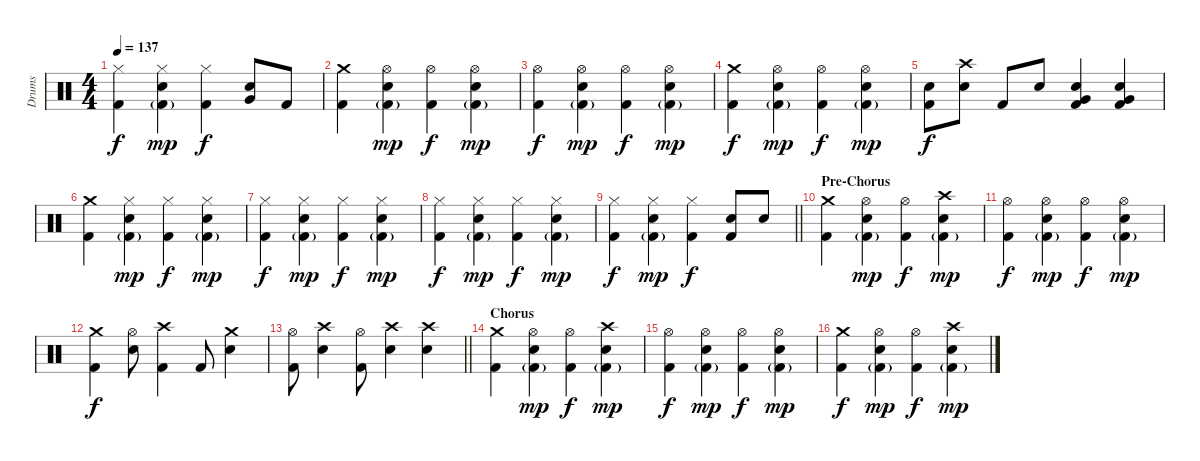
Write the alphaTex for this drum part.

\track ("Drums" "Drums") {instrument percussion}
\staff {score}
\articulation defaults
\ts (4 4)
\tempo 137
\clef neutral
\ks c
("Hi-Hat (closed)" "Kick (hit) 2").4{dy f} ("Hi-Hat (closed)" "Electric Snare (hit)" "Kick (hit) 2"{g}).4{dy mp} ("Hi-Hat (closed)" "Kick (hit) 2").4{dy f} ("Electric Snare (hit)" "Very Low Tom (hit)").8 "Kick (hit) 2".8 |
("Crash medium (hit)" "Kick (hit) 2").4 ("Hi-Hat (open)" "Electric Snare (hit)" "Kick (hit) 2"{g}).4{dy mp} ("Hi-Hat (open)" "Kick (hit) 2").4{dy f} ("Hi-Hat (open)" "Electric Snare (hit)" "Kick (hit) 2"{g}).4{dy mp} |
("Hi-Hat (open)" "Kick (hit) 2").4{dy f} ("Hi-Hat (open)" "Electric Snare (hit)" "Kick (hit) 2"{g}).4{dy mp} ("Hi-Hat (open)" "Kick (hit) 2").4{dy f} ("Hi-Hat (open)" "Electric Snare (hit)" "Kick (hit) 2"{g}).4{dy mp} |
("Crash medium (hit)" "Kick (hit) 2").4{dy f} ("Hi-Hat (open)" "Electric Snare (hit)" "Kick (hit) 2"{g}).4{dy mp} ("Hi-Hat (open)" "Kick (hit) 2").4{dy f} ("Hi-Hat (open)" "Electric Snare (hit)" "Kick (hit) 2"{g}).4{dy mp} |
("Electric Snare (hit)" "Kick (hit) 2").8{dy f} ("Crash high (hit)" "Electric Snare (hit)").8 "Kick (hit) 2".8 "Electric Snare (hit)".8 ("Electric Snare (hit)" "Very Low Tom (hit)" "Kick (hit) 2").4 ("Electric Snare (hit)" "Very Low Tom (hit)" "Kick (hit) 2").4 |
("Crash medium (hit)" "Kick (hit) 2").4 ("Hi-Hat (closed)" "Electric Snare (hit)" "Kick (hit) 2"{g}).4{dy mp} ("Hi-Hat (closed)" "Kick (hit) 2").4{dy f} ("Hi-Hat (closed)" "Electric Snare (hit)" "Kick (hit) 2"{g}).4{dy mp} |
("Hi-Hat (closed)" "Kick (hit) 2").4{dy f} ("Hi-Hat (closed)" "Electric Snare (hit)" "Kick (hit) 2"{g}).4{dy mp} ("Hi-Hat (closed)" "Kick (hit) 2").4{dy f} ("Hi-Hat (closed)" "Electric Snare (hit)" "Kick (hit) 2"{g}).4{dy mp} |
("Hi-Hat (closed)" "Kick (hit) 2").4{dy f} ("Hi-Hat (closed)" "Electric Snare (hit)" "Kick (hit) 2"{g}).4{dy mp} ("Hi-Hat (closed)" "Kick (hit) 2").4{dy f} ("Hi-Hat (closed)" "Electric Snare (hit)" "Kick (hit) 2"{g}).4{dy mp} |
\barLineRight lightlight
("Hi-Hat (closed)" "Kick (hit) 2").4{dy f} ("Hi-Hat (closed)" "Electric Snare (hit)" "Kick (hit) 2"{g}).4{dy mp} ("Hi-Hat (closed)" "Kick (hit) 2").4{dy f} ("Electric Snare (hit)" "Kick (hit) 2").8 "Electric Snare (hit)".8 |
\section ("" "Pre-Chorus")
("Crash medium (hit)" "Kick (hit) 2").4 ("Hi-Hat (open)" "Electric Snare (hit)" "Kick (hit) 2"{g}).4{dy mp} ("Hi-Hat (open)" "Kick (hit) 2").4{dy f} ("Crash high (hit)" "Electric Snare (hit)" "Kick (hit) 2"{g}).4{dy mp} |
("Hi-Hat (open)" "Kick (hit) 2").4{dy f} ("Hi-Hat (open)" "Electric Snare (hit)" "Kick (hit) 2"{g}).4{dy mp} ("Hi-Hat (open)" "Kick (hit) 2").4{dy f} ("Hi-Hat (open)" "Electric Snare (hit)" "Kick (hit) 2"{g}).4{dy mp} |
("Crash medium (hit)" "Kick (hit) 2").4{dy f} ("Hi-Hat (open)" "Electric Snare (hit)").8 ("Crash high (hit)" "Kick (hit) 2").4 "Kick (hit) 2".8 ("Crash medium (hit)" "Electric Snare (hit)").4 |
\barLineRight lightlight
("Hi-Hat (open)" "Kick (hit) 2").8 ("Crash high (hit)" "Electric Snare (hit)").4 ("Hi-Hat (open)" "Kick (hit) 2").8 ("Crash high (hit)" "Electric Snare (hit)").4 ("Crash high (hit)" "Electric Snare (hit)").4 |
\section ("" "Chorus")
("Crash medium (hit)" "Kick (hit) 2").4 ("Hi-Hat (open)" "Electric Snare (hit)" "Kick (hit) 2"{g}).4{dy mp} ("Hi-Hat (open)" "Kick (hit) 2").4{dy f} ("Crash high (hit)" "Electric Snare (hit)" "Kick (hit) 2"{g}).4{dy mp} |
("Hi-Hat (open)" "Kick (hit) 2").4{dy f} ("Hi-Hat (open)" "Electric Snare (hit)" "Kick (hit) 2"{g}).4{dy mp} ("Hi-Hat (open)" "Kick (hit) 2").4{dy f} ("Hi-Hat (open)" "Electric Snare (hit)" "Kick (hit) 2"{g}).4{dy mp} |
("Crash medium (hit)" "Kick (hit) 2").4{dy f} ("Hi-Hat (open)" "Electric Snare (hit)" "Kick (hit) 2"{g}).4{dy mp} ("Hi-Hat (open)" "Kick (hit) 2").4{dy f} ("Crash high (hit)" "Electric Snare (hit)" "Kick (hit) 2"{g}).4{dy mp}
